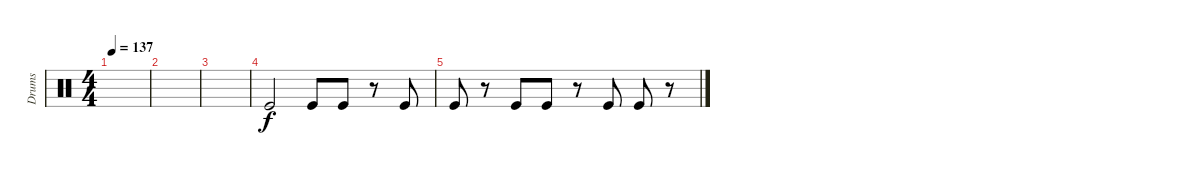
\track ("Drums" "Drums") {instrument percussion}
\staff
\articulation defaults
\ts (4 4)
\tempo 137
\clef neutral
\ks c
|
|
|
"Kick (hit)".2 "Kick (hit)".8 "Kick (hit)".8 r.8 "Kick (hit)".8 |
"Kick (hit)".8 r.8 "Kick (hit)".8 "Kick (hit)".8 r.8 "Kick (hit)".8 "Kick (hit)".8 r.8
